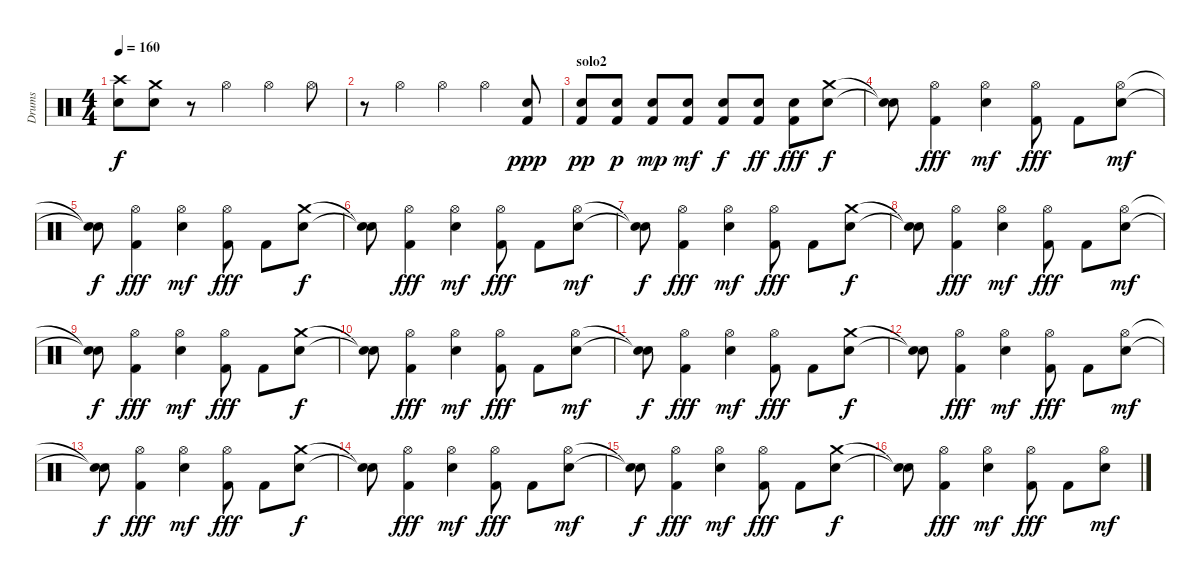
\track ("Drums" "Drums") {instrument percussion}
\staff {score}
\articulation defaults
\ts (4 4)
\tempo 160
\clef neutral
\ks c
("Crash high (hit)" "Electric Snare (hit)").8{dy f} ("Crash medium (hit)" "Electric Snare (hit)").8 r.8 "Hi-Hat (open)".4 "Hi-Hat (open)".4 "Hi-Hat (open)".8 |
r.8 "Hi-Hat (open)".4 "Hi-Hat (open)".4 "Hi-Hat (open)".4 ("Kick (hit) 2" "Electric Snare (hit)").8{dy ppp} |
\section ("" "solo2")
("Kick (hit) 2" "Electric Snare (hit)").8{dy pp} ("Kick (hit) 2" "Electric Snare (hit)").8{dy p} ("Kick (hit) 2" "Electric Snare (hit)").8{dy mp} ("Kick (hit) 2" "Electric Snare (hit)").8{dy mf} ("Kick (hit) 2" "Electric Snare (hit)").8{dy f} ("Kick (hit) 2" "Electric Snare (hit)").8{dy ff} ("Kick (hit) 2" "Electric Snare (hit)").8{dy fff} ("Crash medium (hit)" "Electric Snare (hit)").8{dy f} |
("Snare (hit)"{t} "Snare (hit)"{t}).8 ("Hi-Hat (open)" "Kick (hit) 2").4{dy fff} ("Hi-Hat (open)" "Electric Snare (hit)").4{dy mf} ("Hi-Hat (open)" "Kick (hit) 2").8{dy fff} "Kick (hit) 2".8 ("Hi-Hat (open)" "Electric Snare (hit)").8{dy mf} |
("Snare (hit)"{t} "Snare (hit)"{t}).8{dy f} ("Hi-Hat (open)" "Kick (hit) 2").4{dy fff} ("Hi-Hat (open)" "Electric Snare (hit)").4{dy mf} ("Hi-Hat (open)" "Kick (hit) 2").8{dy fff} "Kick (hit) 2".8 ("Crash medium (hit)" "Electric Snare (hit)").8{dy f} |
("Snare (hit)"{t} "Snare (hit)"{t}).8 ("Hi-Hat (open)" "Kick (hit) 2").4{dy fff} ("Hi-Hat (open)" "Electric Snare (hit)").4{dy mf} ("Hi-Hat (open)" "Kick (hit) 2").8{dy fff} "Kick (hit) 2".8 ("Hi-Hat (open)" "Electric Snare (hit)").8{dy mf} |
("Snare (hit)"{t} "Snare (hit)"{t}).8{dy f} ("Hi-Hat (open)" "Kick (hit) 2").4{dy fff} ("Hi-Hat (open)" "Electric Snare (hit)").4{dy mf} ("Hi-Hat (open)" "Kick (hit) 2").8{dy fff} "Kick (hit) 2".8 ("Crash medium (hit)" "Electric Snare (hit)").8{dy f} |
("Snare (hit)"{t} "Snare (hit)"{t}).8 ("Hi-Hat (open)" "Kick (hit) 2").4{dy fff} ("Hi-Hat (open)" "Electric Snare (hit)").4{dy mf} ("Hi-Hat (open)" "Kick (hit) 2").8{dy fff} "Kick (hit) 2".8 ("Hi-Hat (open)" "Electric Snare (hit)").8{dy mf} |
("Snare (hit)"{t} "Snare (hit)"{t}).8{dy f} ("Hi-Hat (open)" "Kick (hit) 2").4{dy fff} ("Hi-Hat (open)" "Electric Snare (hit)").4{dy mf} ("Hi-Hat (open)" "Kick (hit) 2").8{dy fff} "Kick (hit) 2".8 ("Crash medium (hit)" "Electric Snare (hit)").8{dy f} |
("Snare (hit)"{t} "Snare (hit)"{t}).8 ("Hi-Hat (open)" "Kick (hit) 2").4{dy fff} ("Hi-Hat (open)" "Electric Snare (hit)").4{dy mf} ("Hi-Hat (open)" "Kick (hit) 2").8{dy fff} "Kick (hit) 2".8 ("Hi-Hat (open)" "Electric Snare (hit)").8{dy mf} |
("Snare (hit)"{t} "Snare (hit)"{t}).8{dy f} ("Hi-Hat (open)" "Kick (hit) 2").4{dy fff} ("Hi-Hat (open)" "Electric Snare (hit)").4{dy mf} ("Hi-Hat (open)" "Kick (hit) 2").8{dy fff} "Kick (hit) 2".8 ("Crash medium (hit)" "Electric Snare (hit)").8{dy f} |
("Snare (hit)"{t} "Snare (hit)"{t}).8 ("Hi-Hat (open)" "Kick (hit) 2").4{dy fff} ("Hi-Hat (open)" "Electric Snare (hit)").4{dy mf} ("Hi-Hat (open)" "Kick (hit) 2").8{dy fff} "Kick (hit) 2".8 ("Hi-Hat (open)" "Electric Snare (hit)").8{dy mf} |
("Snare (hit)"{t} "Snare (hit)"{t}).8{dy f} ("Hi-Hat (open)" "Kick (hit) 2").4{dy fff} ("Hi-Hat (open)" "Electric Snare (hit)").4{dy mf} ("Hi-Hat (open)" "Kick (hit) 2").8{dy fff} "Kick (hit) 2".8 ("Crash medium (hit)" "Electric Snare (hit)").8{dy f} |
("Snare (hit)"{t} "Snare (hit)"{t}).8 ("Hi-Hat (open)" "Kick (hit) 2").4{dy fff} ("Hi-Hat (open)" "Electric Snare (hit)").4{dy mf} ("Hi-Hat (open)" "Kick (hit) 2").8{dy fff} "Kick (hit) 2".8 ("Hi-Hat (open)" "Electric Snare (hit)").8{dy mf} |
("Snare (hit)"{t} "Snare (hit)"{t}).8{dy f} ("Hi-Hat (open)" "Kick (hit) 2").4{dy fff} ("Hi-Hat (open)" "Electric Snare (hit)").4{dy mf} ("Hi-Hat (open)" "Kick (hit) 2").8{dy fff} "Kick (hit) 2".8 ("Crash medium (hit)" "Electric Snare (hit)").8{dy f} |
("Snare (hit)"{t} "Snare (hit)"{t}).8 ("Hi-Hat (open)" "Kick (hit) 2").4{dy fff} ("Hi-Hat (open)" "Electric Snare (hit)").4{dy mf} ("Hi-Hat (open)" "Kick (hit) 2").8{dy fff} "Kick (hit) 2".8 ("Hi-Hat (open)" "Electric Snare (hit)").8{dy mf}
